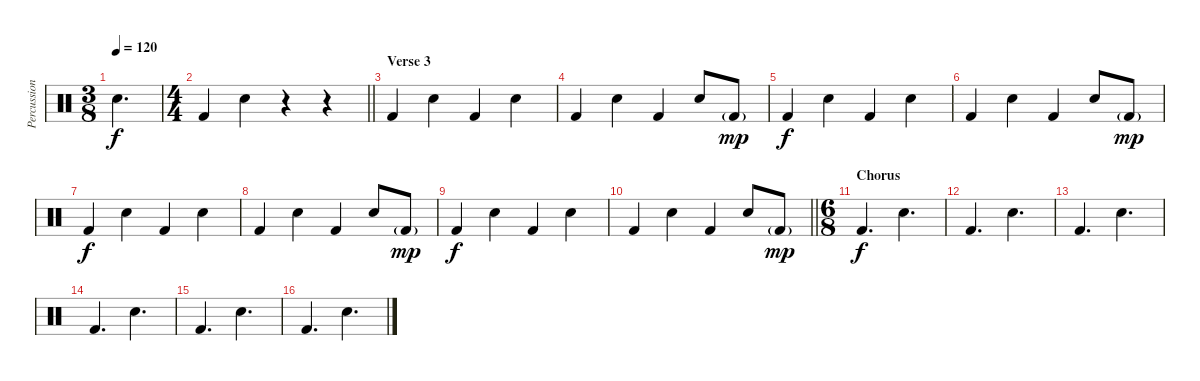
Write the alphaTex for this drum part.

\track ("Percussion" "Percussion") {instrument percussion}
\staff {score}
\articulation defaults
\ts (3 8)
\tempo 120
\clef neutral
\ks c "Snare (hit) 2".4{d dy f}
|
\ts (4 4)
\barLineRight lightlight "Kick (hit) 2".4 "Snare (hit) 2".4
r.4 r.4 |
\section ("" "Verse 3")
"Kick (hit) 2".4 "Snare (hit) 2".4 "Kick (hit) 2".4 "Snare (hit) 2".4 |
"Kick (hit) 2".4 "Snare (hit) 2".4 "Kick (hit) 2".4 "Snare (hit) 2".8 "Kick (hit) 2"{g}.8{dy mp} |
"Kick (hit) 2".4{dy f} "Snare (hit) 2".4 "Kick (hit) 2".4 "Snare (hit) 2".4 |
"Kick (hit) 2".4 "Snare (hit) 2".4 "Kick (hit) 2".4 "Snare (hit) 2".8 "Kick (hit) 2"{g}.8{dy mp} |
"Kick (hit) 2".4{dy f} "Snare (hit) 2".4 "Kick (hit) 2".4 "Snare (hit) 2".4 |
"Kick (hit) 2".4 "Snare (hit) 2".4 "Kick (hit) 2".4 "Snare (hit) 2".8 "Kick (hit) 2"{g}.8{dy mp} |
"Kick (hit) 2".4{dy f} "Snare (hit) 2".4 "Kick (hit) 2".4 "Snare (hit) 2".4 |
\barLineRight lightlight "Kick (hit) 2".4 "Snare (hit) 2".4 "Kick (hit) 2".4 "Snare (hit) 2".8 "Kick (hit) 2"{g}.8{dy mp}
|
\ts (6 8)
\section ("" "Chorus")
"Kick (hit) 2".4{d dy f} "Snare (hit) 2".4{d} |
"Kick (hit) 2".4{d} "Snare (hit) 2".4{d} |
"Kick (hit) 2".4{d} "Snare (hit) 2".4{d} |
"Kick (hit) 2".4{d} "Snare (hit) 2".4{d} |
"Kick (hit) 2".4{d} "Snare (hit) 2".4{d} |
"Kick (hit) 2".4{d} "Snare (hit) 2".4{d}
